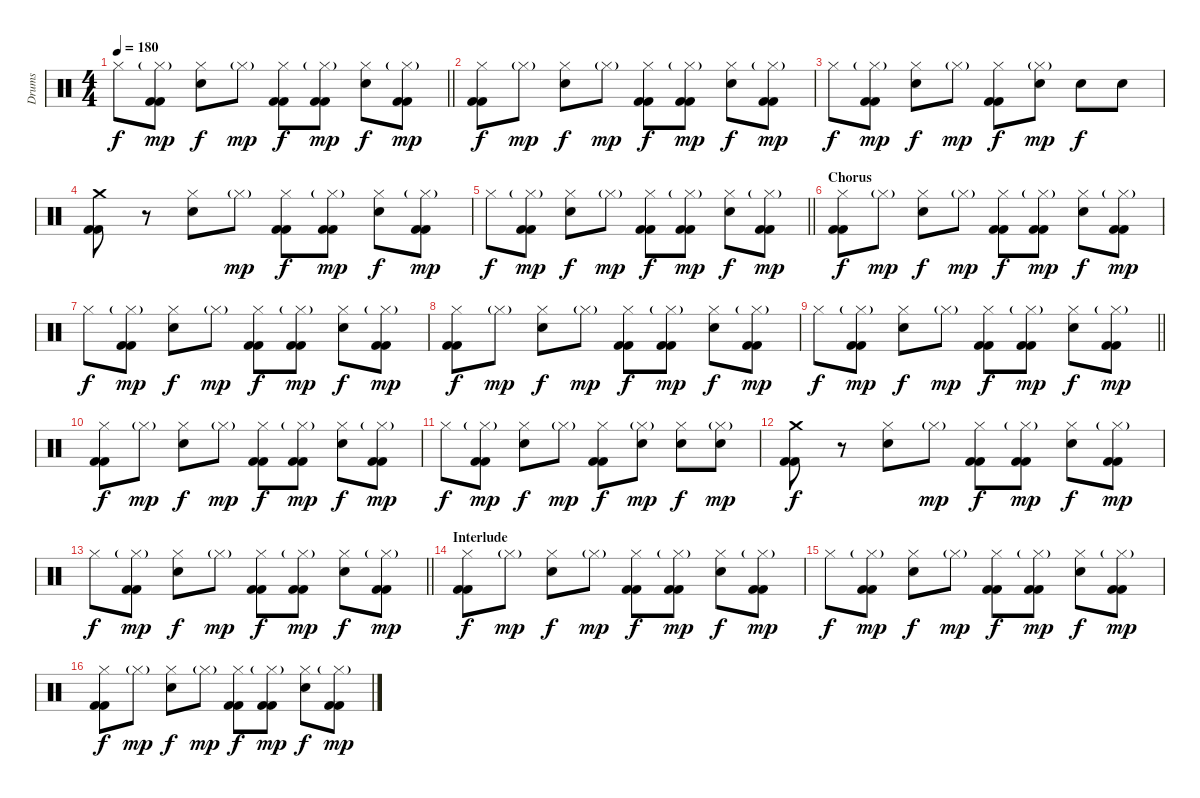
\track ("Drums" "Drums") {instrument percussion}
\staff {score}
\articulation defaults
\ts (4 4)
\tempo 180
\clef neutral
\barLineRight lightlight
\ks c "Hi-Hat (closed)".8{dy f}
("Hi-Hat (closed)"{g} "Kick (hit) 2" "Kick (hit) 2").8{dy mp} ("Hi-Hat (closed)" "Snare (hit) 2").8{dy f} "Hi-Hat (closed)"{g}.8{dy mp} ("Hi-Hat (closed)" "Kick (hit) 2" "Kick (hit) 2").8{dy f} ("Hi-Hat (closed)"{g} "Kick (hit) 2" "Kick (hit) 2").8{dy mp} ("Hi-Hat (closed)" "Snare (hit) 2").8{dy f} ("Hi-Hat (closed)"{g} "Kick (hit) 2" "Kick (hit) 2").8{dy mp} |
("Hi-Hat (closed)" "Kick (hit) 2" "Kick (hit) 2").8{dy f} "Hi-Hat (closed)"{g}.8{dy mp} ("Hi-Hat (closed)" "Snare (hit) 2").8{dy f} "Hi-Hat (closed)"{g}.8{dy mp} ("Hi-Hat (closed)" "Kick (hit) 2" "Kick (hit) 2").8{dy f} ("Hi-Hat (closed)"{g} "Kick (hit) 2" "Kick (hit) 2").8{dy mp} ("Hi-Hat (closed)" "Snare (hit) 2").8{dy f} ("Hi-Hat (closed)"{g} "Kick (hit) 2" "Kick (hit) 2").8{dy mp} |
"Hi-Hat (closed)".8{dy f} ("Hi-Hat (closed)"{g} "Kick (hit) 2" "Kick (hit) 2").8{dy mp} ("Hi-Hat (closed)" "Snare (hit) 2").8{dy f} "Hi-Hat (closed)"{g}.8{dy mp} ("Hi-Hat (closed)" "Kick (hit) 2" "Kick (hit) 2").8{dy f} ("Hi-Hat (closed)"{g} "Snare (hit) 2").8{dy mp} "Snare (hit) 2".8{dy f} "Snare (hit) 2".8 |
("Crash medium (hit)" "Kick (hit) 2" "Kick (hit) 2").8 r.8 ("Hi-Hat (closed)" "Snare (hit) 2").8 "Hi-Hat (closed)"{g}.8{dy mp} ("Hi-Hat (closed)" "Kick (hit) 2" "Kick (hit) 2").8{dy f} ("Hi-Hat (closed)"{g} "Kick (hit) 2" "Kick (hit) 2").8{dy mp} ("Hi-Hat (closed)" "Snare (hit) 2").8{dy f} ("Hi-Hat (closed)"{g} "Kick (hit) 2" "Kick (hit) 2").8{dy mp} |
\barLineRight lightlight "Hi-Hat (closed)".8{dy f}
("Hi-Hat (closed)"{g} "Kick (hit) 2" "Kick (hit) 2").8{dy mp} ("Hi-Hat (closed)" "Snare (hit) 2").8{dy f} "Hi-Hat (closed)"{g}.8{dy mp} ("Hi-Hat (closed)" "Kick (hit) 2" "Kick (hit) 2").8{dy f} ("Hi-Hat (closed)"{g} "Kick (hit) 2" "Kick (hit) 2").8{dy mp} ("Hi-Hat (closed)" "Snare (hit) 2").8{dy f} ("Hi-Hat (closed)"{g} "Kick (hit) 2" "Kick (hit) 2").8{dy mp} |
\section ("" "Chorus")
("Hi-Hat (closed)" "Kick (hit) 2" "Kick (hit) 2").8{dy f} "Hi-Hat (closed)"{g}.8{dy mp} ("Hi-Hat (closed)" "Snare (hit) 2").8{dy f} "Hi-Hat (closed)"{g}.8{dy mp} ("Hi-Hat (closed)" "Kick (hit) 2" "Kick (hit) 2").8{dy f} ("Hi-Hat (closed)"{g} "Kick (hit) 2" "Kick (hit) 2").8{dy mp} ("Hi-Hat (closed)" "Snare (hit) 2").8{dy f} ("Hi-Hat (closed)"{g} "Kick (hit) 2" "Kick (hit) 2").8{dy mp} |
"Hi-Hat (closed)".8{dy f} ("Hi-Hat (closed)"{g} "Kick (hit) 2" "Kick (hit) 2").8{dy mp} ("Hi-Hat (closed)" "Snare (hit) 2").8{dy f} "Hi-Hat (closed)"{g}.8{dy mp} ("Hi-Hat (closed)" "Kick (hit) 2" "Kick (hit) 2").8{dy f} ("Hi-Hat (closed)"{g} "Kick (hit) 2" "Kick (hit) 2").8{dy mp} ("Hi-Hat (closed)" "Snare (hit) 2").8{dy f} ("Hi-Hat (closed)"{g} "Kick (hit) 2" "Kick (hit) 2").8{dy mp} |
("Hi-Hat (closed)" "Kick (hit) 2" "Kick (hit) 2").8{dy f} "Hi-Hat (closed)"{g}.8{dy mp} ("Hi-Hat (closed)" "Snare (hit) 2").8{dy f} "Hi-Hat (closed)"{g}.8{dy mp} ("Hi-Hat (closed)" "Kick (hit) 2" "Kick (hit) 2").8{dy f} ("Hi-Hat (closed)"{g} "Kick (hit) 2" "Kick (hit) 2").8{dy mp} ("Hi-Hat (closed)" "Snare (hit) 2").8{dy f} ("Hi-Hat (closed)"{g} "Kick (hit) 2" "Kick (hit) 2").8{dy mp} |
\barLineRight lightlight "Hi-Hat (closed)".8{dy f}
("Hi-Hat (closed)"{g} "Kick (hit) 2" "Kick (hit) 2").8{dy mp} ("Hi-Hat (closed)" "Snare (hit) 2").8{dy f} "Hi-Hat (closed)"{g}.8{dy mp} ("Hi-Hat (closed)" "Kick (hit) 2" "Kick (hit) 2").8{dy f} ("Hi-Hat (closed)"{g} "Kick (hit) 2" "Kick (hit) 2").8{dy mp} ("Hi-Hat (closed)" "Snare (hit) 2").8{dy f} ("Hi-Hat (closed)"{g} "Kick (hit) 2" "Kick (hit) 2").8{dy mp} |
("Hi-Hat (closed)" "Kick (hit) 2" "Kick (hit) 2").8{dy f} "Hi-Hat (closed)"{g}.8{dy mp} ("Hi-Hat (closed)" "Snare (hit) 2").8{dy f} "Hi-Hat (closed)"{g}.8{dy mp} ("Hi-Hat (closed)" "Kick (hit) 2" "Kick (hit) 2").8{dy f} ("Hi-Hat (closed)"{g} "Kick (hit) 2" "Kick (hit) 2").8{dy mp} ("Hi-Hat (closed)" "Snare (hit) 2").8{dy f} ("Hi-Hat (closed)"{g} "Kick (hit) 2" "Kick (hit) 2").8{dy mp} |
"Hi-Hat (closed)".8{dy f} ("Hi-Hat (closed)"{g} "Kick (hit) 2" "Kick (hit) 2").8{dy mp} ("Hi-Hat (closed)" "Snare (hit) 2").8{dy f} "Hi-Hat (closed)"{g}.8{dy mp} ("Hi-Hat (closed)" "Kick (hit) 2" "Kick (hit) 2").8{dy f} ("Hi-Hat (closed)"{g} "Snare (hit) 2").8{dy mp} ("Hi-Hat (closed)" "Snare (hit) 2").8{dy f} ("Hi-Hat (closed)"{g} "Snare (hit) 2").8{dy mp} |
("Crash medium (hit)" "Kick (hit) 2" "Kick (hit) 2").8{dy f} r.8 ("Hi-Hat (closed)" "Snare (hit) 2").8 "Hi-Hat (closed)"{g}.8{dy mp} ("Hi-Hat (closed)" "Kick (hit) 2" "Kick (hit) 2").8{dy f} ("Hi-Hat (closed)"{g} "Kick (hit) 2" "Kick (hit) 2").8{dy mp} ("Hi-Hat (closed)" "Snare (hit) 2").8{dy f} ("Hi-Hat (closed)"{g} "Kick (hit) 2" "Kick (hit) 2").8{dy mp} |
\barLineRight lightlight "Hi-Hat (closed)".8{dy f}
("Hi-Hat (closed)"{g} "Kick (hit) 2" "Kick (hit) 2").8{dy mp} ("Hi-Hat (closed)" "Snare (hit) 2").8{dy f} "Hi-Hat (closed)"{g}.8{dy mp} ("Hi-Hat (closed)" "Kick (hit) 2" "Kick (hit) 2").8{dy f} ("Hi-Hat (closed)"{g} "Kick (hit) 2" "Kick (hit) 2").8{dy mp} ("Hi-Hat (closed)" "Snare (hit) 2").8{dy f} ("Hi-Hat (closed)"{g} "Kick (hit) 2" "Kick (hit) 2").8{dy mp} |
\section ("" "Interlude")
("Hi-Hat (closed)" "Kick (hit) 2" "Kick (hit) 2").8{dy f} "Hi-Hat (closed)"{g}.8{dy mp} ("Hi-Hat (closed)" "Snare (hit) 2").8{dy f} "Hi-Hat (closed)"{g}.8{dy mp} ("Hi-Hat (closed)" "Kick (hit) 2" "Kick (hit) 2").8{dy f} ("Hi-Hat (closed)"{g} "Kick (hit) 2" "Kick (hit) 2").8{dy mp} ("Hi-Hat (closed)" "Snare (hit) 2").8{dy f} ("Hi-Hat (closed)"{g} "Kick (hit) 2" "Kick (hit) 2").8{dy mp} |
"Hi-Hat (closed)".8{dy f} ("Hi-Hat (closed)"{g} "Kick (hit) 2" "Kick (hit) 2").8{dy mp} ("Hi-Hat (closed)" "Snare (hit) 2").8{dy f} "Hi-Hat (closed)"{g}.8{dy mp} ("Hi-Hat (closed)" "Kick (hit) 2" "Kick (hit) 2").8{dy f} ("Hi-Hat (closed)"{g} "Kick (hit) 2" "Kick (hit) 2").8{dy mp} ("Hi-Hat (closed)" "Snare (hit) 2").8{dy f} ("Hi-Hat (closed)"{g} "Kick (hit) 2" "Kick (hit) 2").8{dy mp} |
("Hi-Hat (closed)" "Kick (hit) 2" "Kick (hit) 2").8{dy f} "Hi-Hat (closed)"{g}.8{dy mp} ("Hi-Hat (closed)" "Snare (hit) 2").8{dy f} "Hi-Hat (closed)"{g}.8{dy mp} ("Hi-Hat (closed)" "Kick (hit) 2" "Kick (hit) 2").8{dy f} ("Hi-Hat (closed)"{g} "Kick (hit) 2" "Kick (hit) 2").8{dy mp} ("Hi-Hat (closed)" "Snare (hit) 2").8{dy f} ("Hi-Hat (closed)"{g} "Kick (hit) 2" "Kick (hit) 2").8{dy mp}
